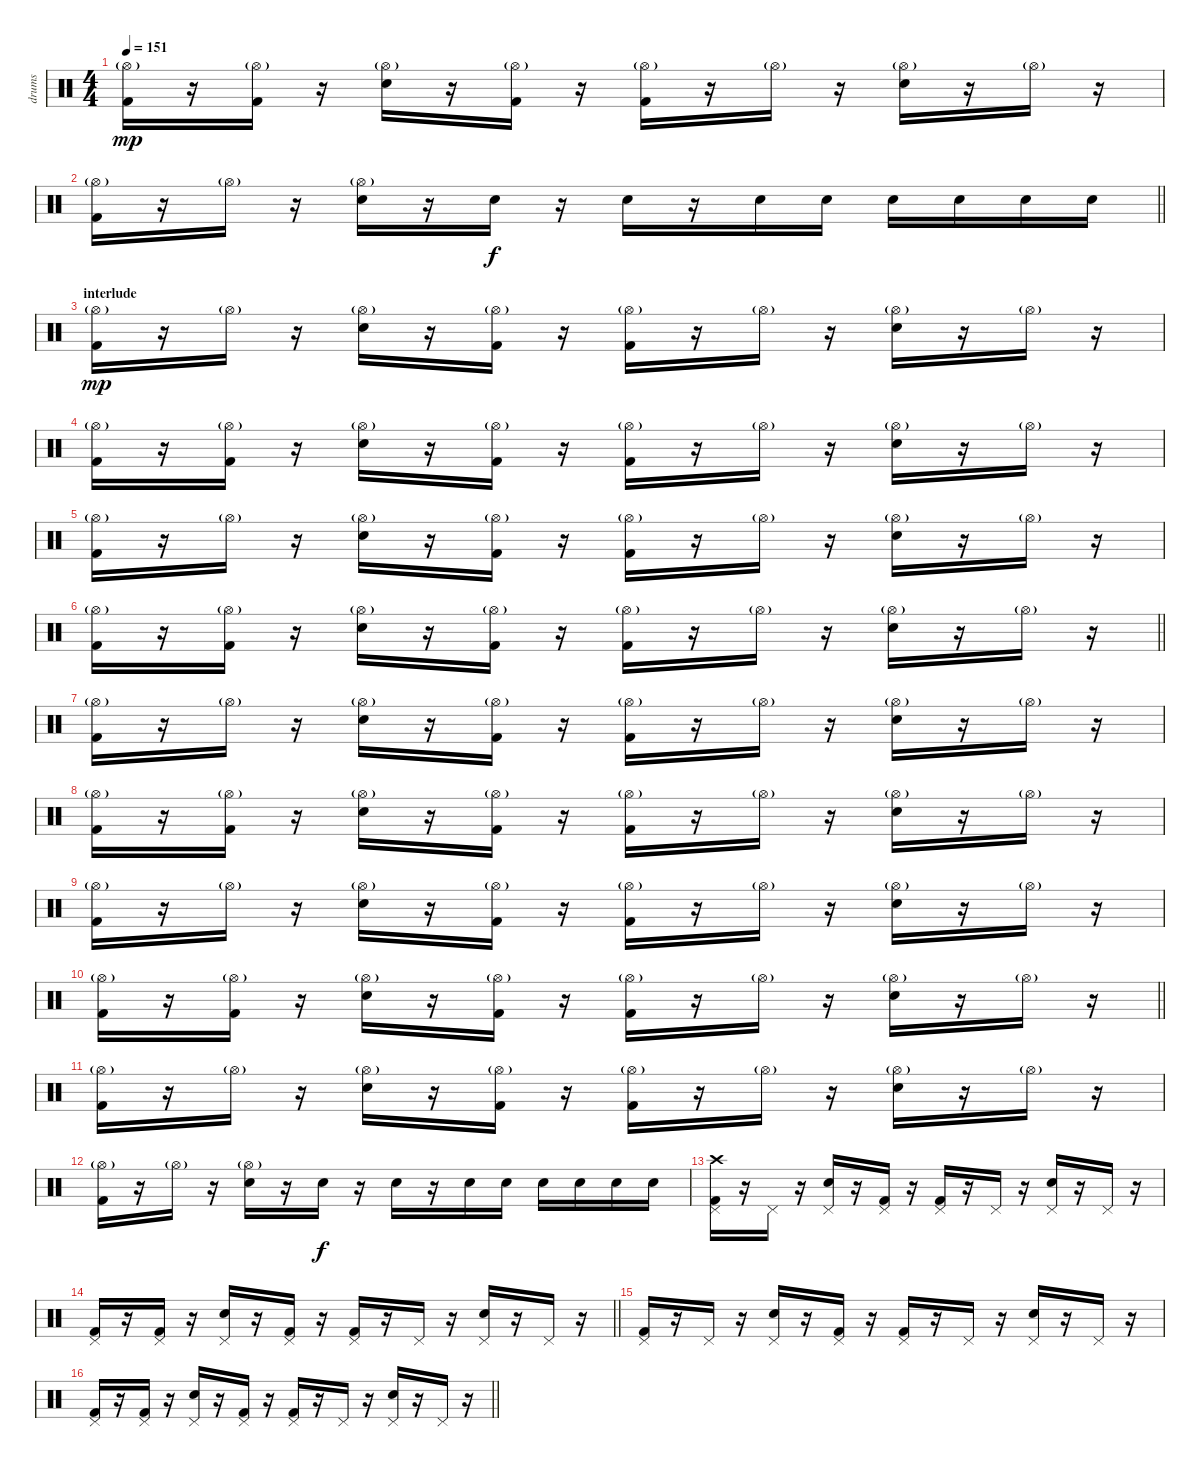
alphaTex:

\track ("drums" "drums") {instrument percussion}
\staff {score}
\articulation defaults
\ts (4 4)
\tempo 151
\clef neutral
\ks c
("Kick (hit) 2" "Hi-Hat (open)"{g}).16{dy mp} r.16 ("Kick (hit) 2" "Hi-Hat (open)"{g}).16 r.16 ("Electric Snare (hit)" "Hi-Hat (open)"{g}).16 r.16 ("Kick (hit) 2" "Hi-Hat (open)"{g}).16 r.16 ("Kick (hit) 2" "Hi-Hat (open)"{g}).16 r.16 "Hi-Hat (open)"{g}.16 r.16 ("Electric Snare (hit)" "Hi-Hat (open)"{g}).16 r.16 "Hi-Hat (open)"{g}.16 r.16 |
\barLineRight lightlight
("Kick (hit) 2" "Hi-Hat (open)"{g}).16 r.16 "Hi-Hat (open)"{g}.16 r.16 ("Electric Snare (hit)" "Hi-Hat (open)"{g}).16 r.16 "Electric Snare (hit)".16{dy f} r.16 "Electric Snare (hit)".16 r.16 "Electric Snare (hit)".16 "Electric Snare (hit)".16 "Electric Snare (hit)".16 "Electric Snare (hit)".16 "Electric Snare (hit)".16 "Electric Snare (hit)".16 |
\section ("" "interlude")
("Kick (hit) 2" "Hi-Hat (open)"{g}).16{dy mp} r.16 "Hi-Hat (open)"{g}.16 r.16 ("Electric Snare (hit)" "Hi-Hat (open)"{g}).16 r.16 ("Kick (hit) 2" "Hi-Hat (open)"{g}).16 r.16 ("Kick (hit) 2" "Hi-Hat (open)"{g}).16 r.16 "Hi-Hat (open)"{g}.16 r.16 ("Electric Snare (hit)" "Hi-Hat (open)"{g}).16 r.16 "Hi-Hat (open)"{g}.16 r.16 |
("Kick (hit) 2" "Hi-Hat (open)"{g}).16 r.16 ("Kick (hit) 2" "Hi-Hat (open)"{g}).16 r.16 ("Electric Snare (hit)" "Hi-Hat (open)"{g}).16 r.16 ("Kick (hit) 2" "Hi-Hat (open)"{g}).16 r.16 ("Kick (hit) 2" "Hi-Hat (open)"{g}).16 r.16 "Hi-Hat (open)"{g}.16 r.16 ("Electric Snare (hit)" "Hi-Hat (open)"{g}).16 r.16 "Hi-Hat (open)"{g}.16 r.16 |
("Kick (hit) 2" "Hi-Hat (open)"{g}).16 r.16 "Hi-Hat (open)"{g}.16 r.16 ("Electric Snare (hit)" "Hi-Hat (open)"{g}).16 r.16 ("Kick (hit) 2" "Hi-Hat (open)"{g}).16 r.16 ("Kick (hit) 2" "Hi-Hat (open)"{g}).16 r.16 "Hi-Hat (open)"{g}.16 r.16 ("Electric Snare (hit)" "Hi-Hat (open)"{g}).16 r.16 "Hi-Hat (open)"{g}.16 r.16 |
\barLineRight lightlight
("Kick (hit) 2" "Hi-Hat (open)"{g}).16 r.16 ("Kick (hit) 2" "Hi-Hat (open)"{g}).16 r.16 ("Electric Snare (hit)" "Hi-Hat (open)"{g}).16 r.16 ("Kick (hit) 2" "Hi-Hat (open)"{g}).16 r.16 ("Kick (hit) 2" "Hi-Hat (open)"{g}).16 r.16 "Hi-Hat (open)"{g}.16 r.16 ("Electric Snare (hit)" "Hi-Hat (open)"{g}).16 r.16 "Hi-Hat (open)"{g}.16 r.16 |
("Kick (hit) 2" "Hi-Hat (open)"{g}).16 r.16 "Hi-Hat (open)"{g}.16 r.16 ("Electric Snare (hit)" "Hi-Hat (open)"{g}).16 r.16 ("Kick (hit) 2" "Hi-Hat (open)"{g}).16 r.16 ("Kick (hit) 2" "Hi-Hat (open)"{g}).16 r.16 "Hi-Hat (open)"{g}.16 r.16 ("Electric Snare (hit)" "Hi-Hat (open)"{g}).16 r.16 "Hi-Hat (open)"{g}.16 r.16 |
("Kick (hit) 2" "Hi-Hat (open)"{g}).16 r.16 ("Kick (hit) 2" "Hi-Hat (open)"{g}).16 r.16 ("Electric Snare (hit)" "Hi-Hat (open)"{g}).16 r.16 ("Kick (hit) 2" "Hi-Hat (open)"{g}).16 r.16 ("Kick (hit) 2" "Hi-Hat (open)"{g}).16 r.16 "Hi-Hat (open)"{g}.16 r.16 ("Electric Snare (hit)" "Hi-Hat (open)"{g}).16 r.16 "Hi-Hat (open)"{g}.16 r.16 |
("Kick (hit) 2" "Hi-Hat (open)"{g}).16 r.16 "Hi-Hat (open)"{g}.16 r.16 ("Electric Snare (hit)" "Hi-Hat (open)"{g}).16 r.16 ("Kick (hit) 2" "Hi-Hat (open)"{g}).16 r.16 ("Kick (hit) 2" "Hi-Hat (open)"{g}).16 r.16 "Hi-Hat (open)"{g}.16 r.16 ("Electric Snare (hit)" "Hi-Hat (open)"{g}).16 r.16 "Hi-Hat (open)"{g}.16 r.16 |
\barLineRight lightlight
("Kick (hit) 2" "Hi-Hat (open)"{g}).16 r.16 ("Kick (hit) 2" "Hi-Hat (open)"{g}).16 r.16 ("Electric Snare (hit)" "Hi-Hat (open)"{g}).16 r.16 ("Kick (hit) 2" "Hi-Hat (open)"{g}).16 r.16 ("Kick (hit) 2" "Hi-Hat (open)"{g}).16 r.16 "Hi-Hat (open)"{g}.16 r.16 ("Electric Snare (hit)" "Hi-Hat (open)"{g}).16 r.16 "Hi-Hat (open)"{g}.16 r.16 |
("Kick (hit) 2" "Hi-Hat (open)"{g}).16 r.16 "Hi-Hat (open)"{g}.16 r.16 ("Electric Snare (hit)" "Hi-Hat (open)"{g}).16 r.16 ("Kick (hit) 2" "Hi-Hat (open)"{g}).16 r.16 ("Kick (hit) 2" "Hi-Hat (open)"{g}).16 r.16 "Hi-Hat (open)"{g}.16 r.16 ("Electric Snare (hit)" "Hi-Hat (open)"{g}).16 r.16 "Hi-Hat (open)"{g}.16 r.16 |
("Kick (hit) 2" "Hi-Hat (open)"{g}).16 r.16 "Hi-Hat (open)"{g}.16 r.16 ("Electric Snare (hit)" "Hi-Hat (open)"{g}).16 r.16 "Electric Snare (hit)".16{dy f} r.16 "Electric Snare (hit)".16 r.16 "Electric Snare (hit)".16 "Electric Snare (hit)".16 "Electric Snare (hit)".16 "Electric Snare (hit)".16 "Electric Snare (hit)".16 "Electric Snare (hit)".16 |
("Kick (hit) 2" "Pedal Hi-Hat (hit)" "Crash high (hit)").16 r.16 "Pedal Hi-Hat (hit)".16 r.16 ("Electric Snare (hit)" "Pedal Hi-Hat (hit)").16 r.16 ("Kick (hit) 2" "Pedal Hi-Hat (hit)").16 r.16 ("Kick (hit) 2" "Pedal Hi-Hat (hit)").16 r.16 "Pedal Hi-Hat (hit)".16 r.16 ("Electric Snare (hit)" "Pedal Hi-Hat (hit)").16 r.16 "Pedal Hi-Hat (hit)".16 r.16 |
\barLineRight lightlight
("Kick (hit) 2" "Pedal Hi-Hat (hit)").16 r.16 ("Kick (hit) 2" "Pedal Hi-Hat (hit)").16 r.16 ("Electric Snare (hit)" "Pedal Hi-Hat (hit)").16 r.16 ("Kick (hit) 2" "Pedal Hi-Hat (hit)").16 r.16 ("Kick (hit) 2" "Pedal Hi-Hat (hit)").16 r.16 "Pedal Hi-Hat (hit)".16 r.16 ("Electric Snare (hit)" "Pedal Hi-Hat (hit)").16 r.16 "Pedal Hi-Hat (hit)".16 r.16 |
("Kick (hit) 2" "Pedal Hi-Hat (hit)").16 r.16 "Pedal Hi-Hat (hit)".16 r.16 ("Electric Snare (hit)" "Pedal Hi-Hat (hit)").16 r.16 ("Kick (hit) 2" "Pedal Hi-Hat (hit)").16 r.16 ("Kick (hit) 2" "Pedal Hi-Hat (hit)").16 r.16 "Pedal Hi-Hat (hit)".16 r.16 ("Electric Snare (hit)" "Pedal Hi-Hat (hit)").16 r.16 "Pedal Hi-Hat (hit)".16 r.16 |
\barLineRight lightlight
("Kick (hit) 2" "Pedal Hi-Hat (hit)").16 r.16 ("Kick (hit) 2" "Pedal Hi-Hat (hit)").16 r.16 ("Electric Snare (hit)" "Pedal Hi-Hat (hit)").16 r.16 ("Kick (hit) 2" "Pedal Hi-Hat (hit)").16 r.16 ("Kick (hit) 2" "Pedal Hi-Hat (hit)").16 r.16 "Pedal Hi-Hat (hit)".16 r.16 ("Electric Snare (hit)" "Pedal Hi-Hat (hit)").16 r.16 "Pedal Hi-Hat (hit)".16 r.16
